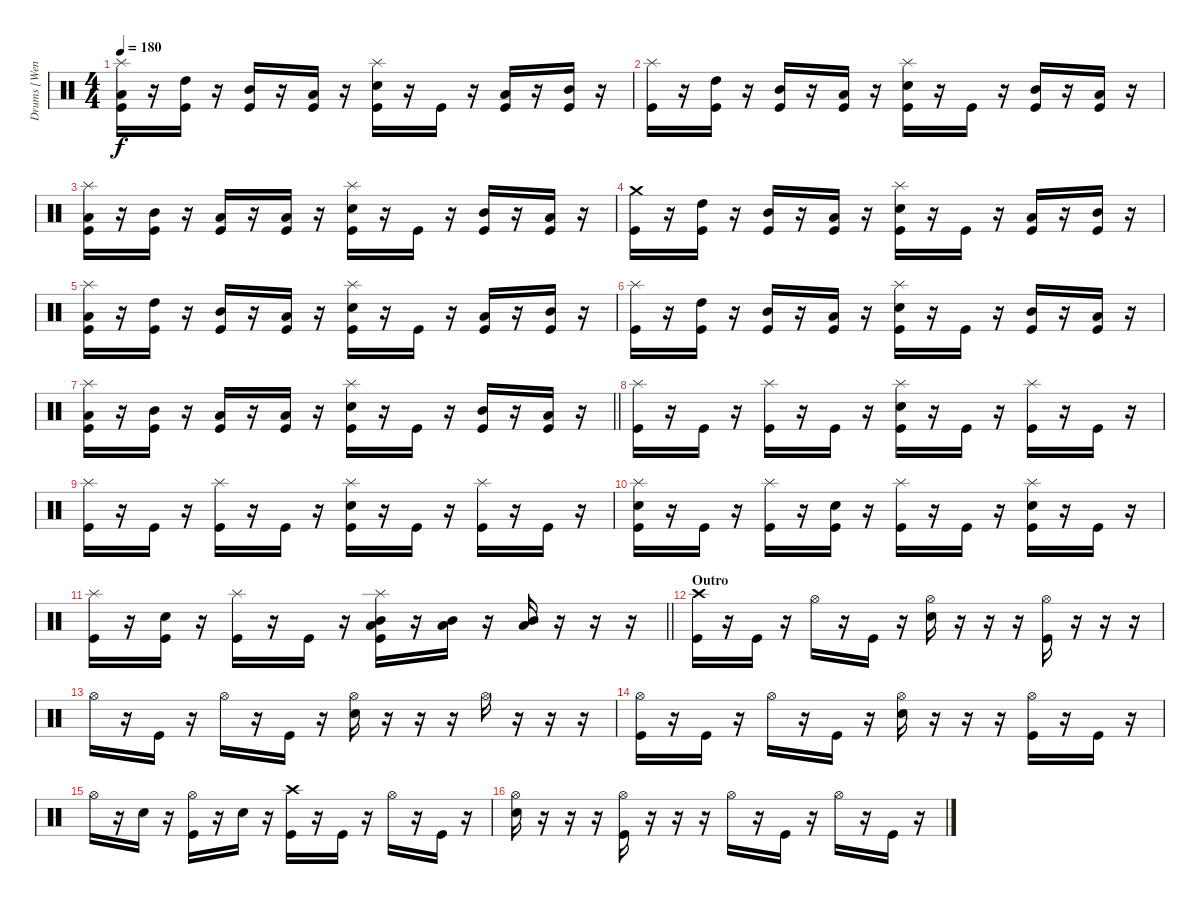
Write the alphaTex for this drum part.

\track ("Drums [Wengren]" "Drums [Wen") {instrument percussion}
\staff {score}
\articulation defaults
\ts (4 4)
\tempo 180
\clef neutral
\ks c
("Splash (hit)" "Low Floor Tom (hit)" "Kick (hit)").16{dy f} r.16 ("High Tom (hit)" "Kick (hit)").16 r.16 ("Mid Tom (hit)" "Kick (hit)").16 r.16 ("Low Tom (hit)" "Kick (hit)").16 r.16 ("Splash (hit)" "Electric Snare (hit)" "Kick (hit)").16 r.16 "Kick (hit)".16 r.16 ("Low Tom (hit)" "Kick (hit)").16 r.16 ("Mid Tom (hit)" "Kick (hit)").16 r.16 |
("Splash (hit)" "Kick (hit)").16 r.16 ("High Tom (hit)" "Kick (hit)").16 r.16 ("Mid Tom (hit)" "Kick (hit)").16 r.16 ("Low Tom (hit)" "Kick (hit)").16 r.16 ("Splash (hit)" "Electric Snare (hit)" "Kick (hit)").16 r.16 "Kick (hit)".16 r.16 ("Mid Tom (hit)" "Kick (hit)").16 r.16 ("Low Tom (hit)" "Kick (hit)").16 r.16 |
("Splash (hit)" "Low Floor Tom (hit)" "Kick (hit)").16 r.16 ("Mid Tom (hit)" "Kick (hit)").16 r.16 ("Low Tom (hit)" "Kick (hit)").16 r.16 ("Low Floor Tom (hit)" "Kick (hit)").16 r.16 ("Splash (hit)" "Electric Snare (hit)" "Kick (hit)").16 r.16 "Kick (hit)".16 r.16 ("Mid Tom (hit)" "Kick (hit)").16 r.16 ("Low Floor Tom (hit)" "Kick (hit)").16 r.16 |
("Crash medium (hit)" "Kick (hit)").16 r.16 ("High Tom (hit)" "Kick (hit)").16 r.16 ("Mid Tom (hit)" "Kick (hit)").16 r.16 ("Low Tom (hit)" "Kick (hit)").16 r.16 ("Splash (hit)" "Electric Snare (hit)" "Kick (hit)").16 r.16 "Kick (hit)".16 r.16 ("Low Tom (hit)" "Kick (hit)").16 r.16 ("Mid Tom (hit)" "Kick (hit)").16 r.16 |
("Splash (hit)" "Low Floor Tom (hit)" "Kick (hit)").16 r.16 ("High Tom (hit)" "Kick (hit)").16 r.16 ("Mid Tom (hit)" "Kick (hit)").16 r.16 ("Low Tom (hit)" "Kick (hit)").16 r.16 ("Splash (hit)" "Electric Snare (hit)" "Kick (hit)").16 r.16 "Kick (hit)".16 r.16 ("Low Tom (hit)" "Kick (hit)").16 r.16 ("Mid Tom (hit)" "Kick (hit)").16 r.16 |
("Splash (hit)" "Kick (hit)").16 r.16 ("High Tom (hit)" "Kick (hit)").16 r.16 ("Mid Tom (hit)" "Kick (hit)").16 r.16 ("Low Tom (hit)" "Kick (hit)").16 r.16 ("Splash (hit)" "Electric Snare (hit)" "Kick (hit)").16 r.16 "Kick (hit)".16 r.16 ("Mid Tom (hit)" "Kick (hit)").16 r.16 ("Low Tom (hit)" "Kick (hit)").16 r.16 |
\barLineRight lightlight
("Splash (hit)" "Low Floor Tom (hit)" "Kick (hit)").16 r.16 ("Mid Tom (hit)" "Kick (hit)").16 r.16 ("Low Tom (hit)" "Kick (hit)").16 r.16 ("Low Floor Tom (hit)" "Kick (hit)").16 r.16 ("Splash (hit)" "Electric Snare (hit)" "Kick (hit)").16 r.16 "Kick (hit)".16 r.16 ("Mid Tom (hit)" "Kick (hit)").16 r.16 ("Low Floor Tom (hit)" "Kick (hit)").16 r.16 |
("Splash (hit)" "Kick (hit)").16 r.16 "Kick (hit)".16 r.16 ("Splash (hit)" "Kick (hit)").16 r.16 "Kick (hit)".16 r.16 ("Splash (hit)" "Electric Snare (hit)" "Kick (hit)").16 r.16 "Kick (hit)".16 r.16 ("Splash (hit)" "Kick (hit)").16 r.16 "Kick (hit)".16 r.16 |
("Splash (hit)" "Kick (hit)").16 r.16 "Kick (hit)".16 r.16 ("Splash (hit)" "Kick (hit)").16 r.16 "Kick (hit)".16 r.16 ("Splash (hit)" "Electric Snare (hit)" "Kick (hit)").16 r.16 "Kick (hit)".16 r.16 ("Splash (hit)" "Kick (hit)").16 r.16 "Kick (hit)".16 r.16 |
("Splash (hit)" "Electric Snare (hit)" "Kick (hit)").16 r.16 "Kick (hit)".16 r.16 ("Splash (hit)" "Kick (hit)").16 r.16 ("Electric Snare (hit)" "Kick (hit)").16 r.16 ("Splash (hit)" "Kick (hit)").16 r.16 "Kick (hit)".16 r.16 ("Splash (hit)" "Electric Snare (hit)" "Kick (hit)").16 r.16 "Kick (hit)".16 r.16 |
\barLineRight lightlight
("Splash (hit)" "Kick (hit)").16 r.16 ("Electric Snare (hit)" "Kick (hit)").16 r.16 ("Splash (hit)" "Kick (hit)").16 r.16 "Kick (hit)".16 r.16 ("Splash (hit)" "Mid Tom (hit)" "Low Tom (hit)" "Kick (hit)").16 r.16 ("Mid Tom (hit)" "Low Tom (hit)").16 r.16 ("Mid Tom (hit)" "Low Tom (hit)").16 r.16 r.16 r.16 |
\section ("" "Outro")
("Crash high (hit)" "Kick (hit)").16 r.16 "Kick (hit)".16 r.16 "Hi-Hat (open)".16 r.16 "Kick (hit)".16 r.16 ("Hi-Hat (open)" "Electric Snare (hit)").16 r.16 r.16 r.16 ("Hi-Hat (open)" "Kick (hit)").16 r.16 r.16 r.16 |
"Hi-Hat (open)".16 r.16 "Kick (hit)".16 r.16 "Hi-Hat (open)".16 r.16 "Kick (hit)".16 r.16 ("Hi-Hat (open)" "Electric Snare (hit)").16 r.16 r.16 r.16 "Hi-Hat (open)".16 r.16 r.16 r.16 |
("Hi-Hat (open)" "Kick (hit)").16 r.16 "Kick (hit)".16 r.16 "Hi-Hat (open)".16 r.16 "Kick (hit)".16 r.16 ("Hi-Hat (open)" "Electric Snare (hit)").16 r.16 r.16 r.16 ("Hi-Hat (open)" "Kick (hit)").16 r.16 "Kick (hit)".16 r.16 |
"Hi-Hat (open)".16 r.16 "Electric Snare (hit)".16 r.16 ("Hi-Hat (open)" "Kick (hit)").16 r.16 "Electric Snare (hit)".16 r.16 ("Crash high (hit)" "Kick (hit)").16 r.16 "Kick (hit)".16 r.16 "Hi-Hat (open)".16 r.16 "Kick (hit)".16 r.16 |
("Hi-Hat (open)" "Electric Snare (hit)").16 r.16 r.16 r.16 ("Hi-Hat (open)" "Kick (hit)").16 r.16 r.16 r.16 "Hi-Hat (open)".16 r.16 "Kick (hit)".16 r.16 "Hi-Hat (open)".16 r.16 "Kick (hit)".16 r.16
